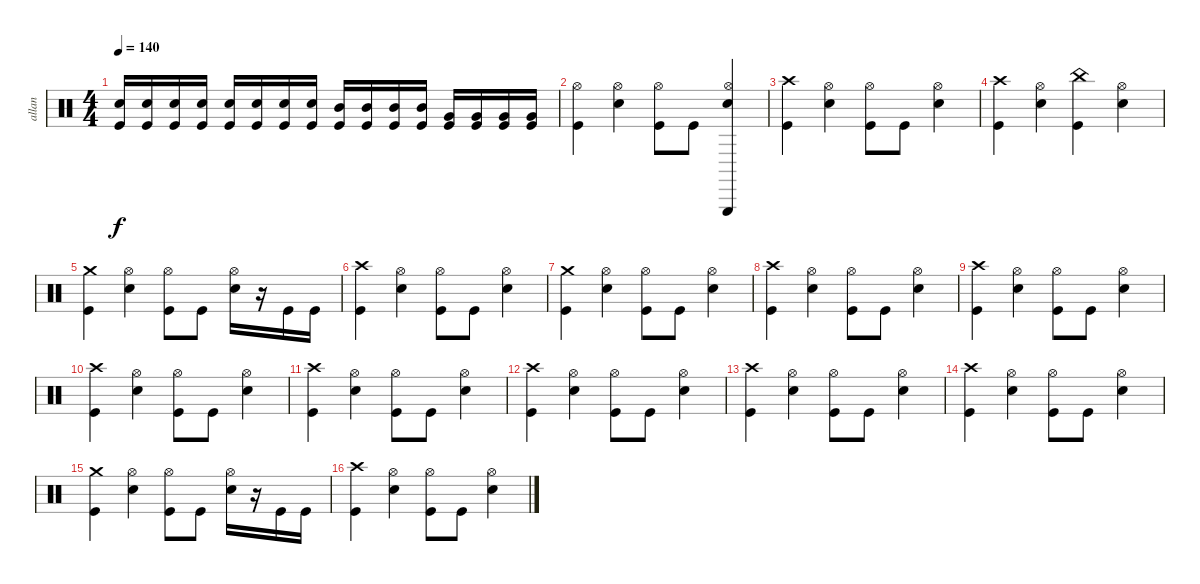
\track ("allan" "allan") {instrument percussion}
\staff {score}
\articulation defaults
\ts (4 4)
\tempo 140
\clef neutral
\ks c
("Snare (hit) 2" "Kick (hit)").16{dy f} ("Snare (hit) 2" "Kick (hit)").16 ("Snare (hit) 2" "Kick (hit)").16 ("Snare (hit) 2" "Kick (hit)").16 ("Snare (hit) 2" "Kick (hit)").16 ("Snare (hit) 2" "Kick (hit)").16 ("Snare (hit) 2" "Kick (hit)").16 ("Snare (hit) 2" "Kick (hit)").16 ("Mid Tom (hit)" "Kick (hit)").16 ("Mid Tom (hit)" "Kick (hit)").16 ("Mid Tom (hit)" "Kick (hit)").16 ("Mid Tom (hit)" "Kick (hit)").16 ("Very Low Tom (hit)" "Kick (hit)").16 ("Very Low Tom (hit)" "Kick (hit)").16 ("Kick (hit)" "Very Low Tom (hit)").16 ("Kick (hit)" "Very Low Tom (hit)").16 |
("Hi-Hat (open)" "Kick (hit)").4 ("Hi-Hat (open)" "Snare (hit) 2").4 ("Hi-Hat (open)" "Kick (hit)").8 "Kick (hit)".8 ("Triangle (hit)" "Hi-Hat (open)" "Snare (hit) 2").4 |
("Crash high (hit)" "Kick (hit)").4 ("Hi-Hat (open)" "Snare (hit) 2").4 ("Hi-Hat (open)" "Kick (hit)").8 "Kick (hit)".8 ("Hi-Hat (open)" "Snare (hit) 2").4 |
("Crash high (hit)" "Kick (hit)").4 ("Hi-Hat (open)" "Snare (hit) 2").4 ("China (hit)" "Kick (hit)").4 ("Hi-Hat (open)" "Snare (hit) 2").4 |
("Crash medium (hit)" "Kick (hit)").4 ("Hi-Hat (open)" "Snare (hit) 2").4 ("Hi-Hat (open)" "Kick (hit)").8 "Kick (hit)".8 ("Hi-Hat (open)" "Snare (hit) 2").16 r.16 "Kick (hit)".16 "Kick (hit)".16 |
("Crash high (hit)" "Kick (hit)").4 ("Hi-Hat (open)" "Snare (hit) 2").4 ("Hi-Hat (open)" "Kick (hit)").8 "Kick (hit)".8 ("Hi-Hat (open)" "Snare (hit) 2").4 |
("Crash medium (hit)" "Kick (hit)").4 ("Hi-Hat (open)" "Snare (hit) 2").4 ("Hi-Hat (open)" "Kick (hit)").8 "Kick (hit)".8 ("Hi-Hat (open)" "Snare (hit) 2").4 |
("Crash high (hit)" "Kick (hit)").4 ("Hi-Hat (open)" "Snare (hit) 2").4 ("Hi-Hat (open)" "Kick (hit)").8 "Kick (hit)".8 ("Hi-Hat (open)" "Snare (hit) 2").4 |
("Crash high (hit)" "Kick (hit)").4 ("Hi-Hat (open)" "Snare (hit) 2").4 ("Hi-Hat (open)" "Kick (hit)").8 "Kick (hit)".8 ("Hi-Hat (open)" "Snare (hit) 2").4 |
("Crash high (hit)" "Kick (hit)").4 ("Hi-Hat (open)" "Snare (hit) 2").4 ("Hi-Hat (open)" "Kick (hit)").8 "Kick (hit)".8 ("Hi-Hat (open)" "Snare (hit) 2").4 |
("Crash high (hit)" "Kick (hit)").4 ("Hi-Hat (open)" "Snare (hit) 2").4 ("Hi-Hat (open)" "Kick (hit)").8 "Kick (hit)".8 ("Hi-Hat (open)" "Snare (hit) 2").4 |
("Crash high (hit)" "Kick (hit)").4 ("Hi-Hat (open)" "Snare (hit) 2").4 ("Hi-Hat (open)" "Kick (hit)").8 "Kick (hit)".8 ("Hi-Hat (open)" "Snare (hit) 2").4 |
("Crash high (hit)" "Kick (hit)").4 ("Hi-Hat (open)" "Snare (hit) 2").4 ("Hi-Hat (open)" "Kick (hit)").8 "Kick (hit)".8 ("Hi-Hat (open)" "Snare (hit) 2").4 |
("Crash high (hit)" "Kick (hit)").4 ("Hi-Hat (open)" "Snare (hit) 2").4 ("Hi-Hat (open)" "Kick (hit)").8 "Kick (hit)".8 ("Hi-Hat (open)" "Snare (hit) 2").4 |
("Crash medium (hit)" "Kick (hit)").4 ("Hi-Hat (open)" "Snare (hit) 2").4 ("Hi-Hat (open)" "Kick (hit)").8 "Kick (hit)".8 ("Hi-Hat (open)" "Snare (hit) 2").16 r.16 "Kick (hit)".16 "Kick (hit)".16 |
("Crash high (hit)" "Kick (hit)").4 ("Hi-Hat (open)" "Snare (hit) 2").4 ("Hi-Hat (open)" "Kick (hit)").8 "Kick (hit)".8 ("Hi-Hat (open)" "Snare (hit) 2").4
